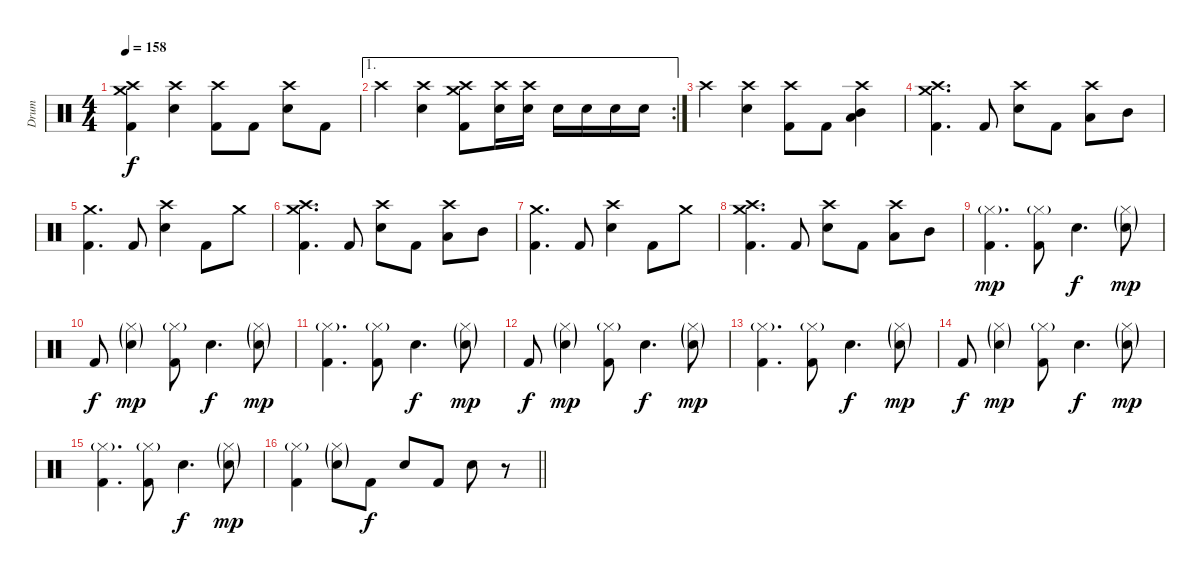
\track ("Drum" "Drum") {instrument percussion}
\staff {score}
\articulation defaults
\ts (4 4)
\tempo 158
\clef neutral
\ks c
("Crash high (hit)" "Crash medium (hit)" "Kick (hit) 2").4{dy f} ("Crash high (hit)" "Electric Snare (hit)").4 ("Crash high (hit)" "Kick (hit) 2").8 "Kick (hit) 2".8 ("Crash high (hit)" "Electric Snare (hit)").8 "Kick (hit) 2".8 |
\ae 1
\rc 2 "Crash high (hit)".4
("Crash high (hit)" "Electric Snare (hit)").4 ("Crash high (hit)" "Crash medium (hit)" "Kick (hit) 2").8 ("Crash high (hit)" "Electric Snare (hit)").16 ("Crash high (hit)" "Electric Snare (hit)").16 "Electric Snare (hit)".16 "Electric Snare (hit)".16 "Electric Snare (hit)".16 "Electric Snare (hit)".16 |
"Crash high (hit)".4 ("Crash high (hit)" "Electric Snare (hit)").4 ("Crash high (hit)" "Kick (hit) 2").8 "Kick (hit) 2".8 ("Crash high (hit)" "Mid Tom (hit)" "Low Tom (hit)").4 |
("Crash medium (hit)" "Crash high (hit)" "Kick (hit) 2").4{d} "Kick (hit) 2".8 ("Crash high (hit)" "Electric Snare (hit)").8 "Kick (hit) 2".8 ("Crash high (hit)" "Low Tom (hit)").8 "Mid Tom (hit)".8 |
("Crash medium (hit)" "Kick (hit) 2").4{d} "Kick (hit) 2".8 ("Crash high (hit)" "Electric Snare (hit)").4 "Kick (hit) 2".8 "Crash medium (hit)".8 |
("Crash medium (hit)" "Crash high (hit)" "Kick (hit) 2").4{d} "Kick (hit) 2".8 ("Crash high (hit)" "Electric Snare (hit)").8 "Kick (hit) 2".8 ("Crash high (hit)" "Low Tom (hit)").8 "Mid Tom (hit)".8 |
("Crash medium (hit)" "Kick (hit) 2").4{d} "Kick (hit) 2".8 ("Crash high (hit)" "Electric Snare (hit)").4 "Kick (hit) 2".8 "Crash medium (hit)".8 |
("Crash medium (hit)" "Crash high (hit)" "Kick (hit) 2").4{d} "Kick (hit) 2".8 ("Crash high (hit)" "Electric Snare (hit)").8 "Kick (hit) 2".8 ("Crash high (hit)" "Low Tom (hit)").8 "Mid Tom (hit)".8 |
("Hi-Hat (closed)"{g} "Kick (hit) 2").4{d dy mp} ("Hi-Hat (closed)"{g} "Kick (hit) 2").8 "Electric Snare (hit)".4{d dy f} ("Hi-Hat (closed)"{g} "Electric Snare (hit)"{g}).8{dy mp} |
"Kick (hit) 2".8{dy f} ("Hi-Hat (closed)"{g} "Electric Snare (hit)"{g}).4{dy mp} ("Hi-Hat (closed)"{g} "Kick (hit) 2").8 "Electric Snare (hit)".4{d dy f} ("Hi-Hat (closed)"{g} "Electric Snare (hit)"{g}).8{dy mp} |
("Hi-Hat (closed)"{g} "Kick (hit) 2").4{d} ("Hi-Hat (closed)"{g} "Kick (hit) 2").8 "Electric Snare (hit)".4{d dy f} ("Hi-Hat (closed)"{g} "Electric Snare (hit)"{g}).8{dy mp} |
"Kick (hit) 2".8{dy f} ("Hi-Hat (closed)"{g} "Electric Snare (hit)"{g}).4{dy mp} ("Hi-Hat (closed)"{g} "Kick (hit) 2").8 "Electric Snare (hit)".4{d dy f} ("Hi-Hat (closed)"{g} "Electric Snare (hit)"{g}).8{dy mp} |
("Hi-Hat (closed)"{g} "Kick (hit) 2").4{d} ("Hi-Hat (closed)"{g} "Kick (hit) 2").8 "Electric Snare (hit)".4{d dy f} ("Hi-Hat (closed)"{g} "Electric Snare (hit)"{g}).8{dy mp} |
"Kick (hit) 2".8{dy f} ("Hi-Hat (closed)"{g} "Electric Snare (hit)"{g}).4{dy mp} ("Hi-Hat (closed)"{g} "Kick (hit) 2").8 "Electric Snare (hit)".4{d dy f} ("Hi-Hat (closed)"{g} "Electric Snare (hit)"{g}).8{dy mp} |
("Hi-Hat (closed)"{g} "Kick (hit) 2").4{d} ("Hi-Hat (closed)"{g} "Kick (hit) 2").8 "Electric Snare (hit)".4{d dy f} ("Hi-Hat (closed)"{g} "Electric Snare (hit)"{g}).8{dy mp} |
\barLineRight lightlight
("Hi-Hat (closed)"{g} "Kick (hit) 2").4 ("Hi-Hat (closed)"{g} "Electric Snare (hit)"{g}).8 "Kick (hit) 2".8{dy f} "Electric Snare (hit)".8 "Kick (hit) 2".8 "Electric Snare (hit)".8 r.8
